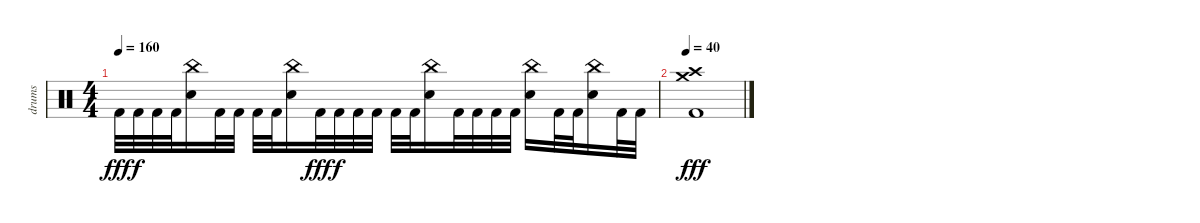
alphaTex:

\track ("drums" "drums") {instrument percussion}
\staff {score}
\articulation defaults
\ts (4 4)
\tempo 160
\clef neutral
\ks c "Kick (hit) 2".32{dy fff} "Kick (hit) 2".32{dy f} "Kick (hit) 2".32 "Kick (hit) 2".32
("Electric Snare (hit)" "China (hit)").16 "Kick (hit) 2".32 "Kick (hit) 2".32 "Kick (hit) 2".32 "Kick (hit) 2".32 ("Electric Snare (hit)" "China (hit)").16 "Kick (hit) 2".32{dy fff} "Kick (hit) 2".32{dy f} "Kick (hit) 2".32 "Kick (hit) 2".32 "Kick (hit) 2".32 "Kick (hit) 2".32 ("Electric Snare (hit)" "China (hit)").16 "Kick (hit) 2".32 "Kick (hit) 2".32 "Kick (hit) 2".32 "Kick (hit) 2".32 ("Electric Snare (hit)" "China (hit)").16 "Kick (hit) 2".32 "Kick (hit) 2".32 ("Electric Snare (hit)" "China (hit)").16 "Kick (hit) 2".32 "Kick (hit) 2".32 |
\tempo 40
("Kick (hit) 2" "Crash high (hit)" "Crash medium (hit)").1{dy fff}
